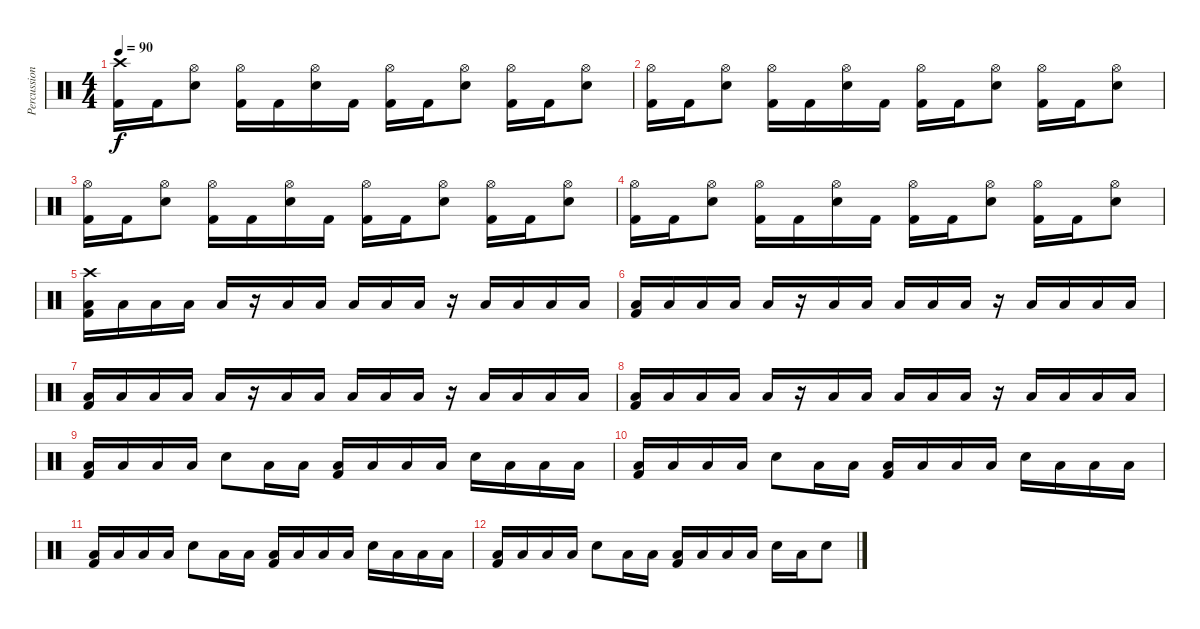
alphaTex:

\track ("Percussion" "Percussion") {instrument percussion}
\staff {score}
\articulation defaults
\ts (4 4)
\tempo 90
\clef neutral
\ks c
("Crash high (hit)" "Kick (hit) 2").16{dy f} "Kick (hit) 2".16 ("Hi-Hat (open)" "Snare (hit) 2").8 ("Hi-Hat (open)" "Kick (hit) 2").16 "Kick (hit) 2".16 ("Hi-Hat (open)" "Snare (hit) 2").16 "Kick (hit) 2".16 ("Hi-Hat (open)" "Kick (hit) 2").16 "Kick (hit) 2".16 ("Hi-Hat (open)" "Snare (hit) 2").8 ("Hi-Hat (open)" "Kick (hit) 2").16 "Kick (hit) 2".16 ("Hi-Hat (open)" "Snare (hit) 2").8 |
("Hi-Hat (open)" "Kick (hit) 2").16 "Kick (hit) 2".16 ("Hi-Hat (open)" "Snare (hit) 2").8 ("Hi-Hat (open)" "Kick (hit) 2").16 "Kick (hit) 2".16 ("Hi-Hat (open)" "Snare (hit) 2").16 "Kick (hit) 2".16 ("Hi-Hat (open)" "Kick (hit) 2").16 "Kick (hit) 2".16 ("Hi-Hat (open)" "Snare (hit) 2").8 ("Hi-Hat (open)" "Kick (hit) 2").16 "Kick (hit) 2".16 ("Hi-Hat (open)" "Snare (hit) 2").8 |
("Hi-Hat (open)" "Kick (hit) 2").16 "Kick (hit) 2".16 ("Hi-Hat (open)" "Snare (hit) 2").8 ("Hi-Hat (open)" "Kick (hit) 2").16 "Kick (hit) 2".16 ("Hi-Hat (open)" "Snare (hit) 2").16 "Kick (hit) 2".16 ("Hi-Hat (open)" "Kick (hit) 2").16 "Kick (hit) 2".16 ("Hi-Hat (open)" "Snare (hit) 2").8 ("Hi-Hat (open)" "Kick (hit) 2").16 "Kick (hit) 2".16 ("Hi-Hat (open)" "Snare (hit) 2").8 |
("Hi-Hat (open)" "Kick (hit) 2").16 "Kick (hit) 2".16 ("Hi-Hat (open)" "Snare (hit) 2").8 ("Hi-Hat (open)" "Kick (hit) 2").16 "Kick (hit) 2".16 ("Hi-Hat (open)" "Snare (hit) 2").16 "Kick (hit) 2".16 ("Hi-Hat (open)" "Kick (hit) 2").16 "Kick (hit) 2".16 ("Hi-Hat (open)" "Snare (hit) 2").8 ("Hi-Hat (open)" "Kick (hit) 2").16 "Kick (hit) 2".16 ("Hi-Hat (open)" "Snare (hit) 2").8 |
("Crash high (hit)" "Low Floor Tom (hit)" "Kick (hit) 2").16 "Low Floor Tom (hit)".16 "Low Floor Tom (hit)".16 "Low Floor Tom (hit)".16 "Low Floor Tom (hit)".16 r.16 "Low Floor Tom (hit)".16 "Low Floor Tom (hit)".16 "Low Floor Tom (hit)".16 "Low Floor Tom (hit)".16 "Low Floor Tom (hit)".16 r.16 "Low Floor Tom (hit)".16 "Low Floor Tom (hit)".16 "Low Floor Tom (hit)".16 "Low Floor Tom (hit)".16 |
("Low Floor Tom (hit)" "Kick (hit) 2").16 "Low Floor Tom (hit)".16 "Low Floor Tom (hit)".16 "Low Floor Tom (hit)".16 "Low Floor Tom (hit)".16 r.16 "Low Floor Tom (hit)".16 "Low Floor Tom (hit)".16 "Low Floor Tom (hit)".16 "Low Floor Tom (hit)".16 "Low Floor Tom (hit)".16 r.16 "Low Floor Tom (hit)".16 "Low Floor Tom (hit)".16 "Low Floor Tom (hit)".16 "Low Floor Tom (hit)".16 |
("Low Floor Tom (hit)" "Kick (hit) 2").16 "Low Floor Tom (hit)".16 "Low Floor Tom (hit)".16 "Low Floor Tom (hit)".16 "Low Floor Tom (hit)".16 r.16 "Low Floor Tom (hit)".16 "Low Floor Tom (hit)".16 "Low Floor Tom (hit)".16 "Low Floor Tom (hit)".16 "Low Floor Tom (hit)".16 r.16 "Low Floor Tom (hit)".16 "Low Floor Tom (hit)".16 "Low Floor Tom (hit)".16 "Low Floor Tom (hit)".16 |
("Low Floor Tom (hit)" "Kick (hit) 2").16 "Low Floor Tom (hit)".16 "Low Floor Tom (hit)".16 "Low Floor Tom (hit)".16 "Low Floor Tom (hit)".16 r.16 "Low Floor Tom (hit)".16 "Low Floor Tom (hit)".16 "Low Floor Tom (hit)".16 "Low Floor Tom (hit)".16 "Low Floor Tom (hit)".16 r.16 "Low Floor Tom (hit)".16 "Low Floor Tom (hit)".16 "Low Floor Tom (hit)".16 "Low Floor Tom (hit)".16 |
("Low Floor Tom (hit)" "Kick (hit) 2").16 "Low Floor Tom (hit)".16 "Low Floor Tom (hit)".16 "Low Floor Tom (hit)".16 "Snare (hit) 2".8 "Low Floor Tom (hit)".16 "Low Floor Tom (hit)".16 ("Low Floor Tom (hit)" "Kick (hit) 2").16 "Low Floor Tom (hit)".16 "Low Floor Tom (hit)".16 "Low Floor Tom (hit)".16 "Snare (hit) 2".16 "Low Floor Tom (hit)".16 "Low Floor Tom (hit)".16 "Low Floor Tom (hit)".16 |
("Low Floor Tom (hit)" "Kick (hit) 2").16 "Low Floor Tom (hit)".16 "Low Floor Tom (hit)".16 "Low Floor Tom (hit)".16 "Snare (hit) 2".8 "Low Floor Tom (hit)".16 "Low Floor Tom (hit)".16 ("Low Floor Tom (hit)" "Kick (hit) 2").16 "Low Floor Tom (hit)".16 "Low Floor Tom (hit)".16 "Low Floor Tom (hit)".16 "Snare (hit) 2".16 "Low Floor Tom (hit)".16 "Low Floor Tom (hit)".16 "Low Floor Tom (hit)".16 |
("Low Floor Tom (hit)" "Kick (hit) 2").16 "Low Floor Tom (hit)".16 "Low Floor Tom (hit)".16 "Low Floor Tom (hit)".16 "Snare (hit) 2".8 "Low Floor Tom (hit)".16 "Low Floor Tom (hit)".16 ("Low Floor Tom (hit)" "Kick (hit) 2").16 "Low Floor Tom (hit)".16 "Low Floor Tom (hit)".16 "Low Floor Tom (hit)".16 "Snare (hit) 2".16 "Low Floor Tom (hit)".16 "Low Floor Tom (hit)".16 "Low Floor Tom (hit)".16 |
("Low Floor Tom (hit)" "Kick (hit) 2").16 "Low Floor Tom (hit)".16 "Low Floor Tom (hit)".16 "Low Floor Tom (hit)".16 "Snare (hit) 2".8 "Low Floor Tom (hit)".16 "Low Floor Tom (hit)".16 ("Low Floor Tom (hit)" "Kick (hit) 2").16 "Low Floor Tom (hit)".16 "Low Floor Tom (hit)".16 "Low Floor Tom (hit)".16 "Snare (hit) 2".16 "Low Floor Tom (hit)".16 "Snare (hit) 2".8
